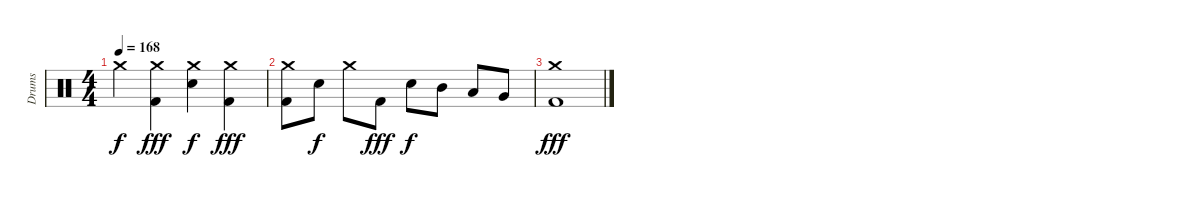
\track ("Drums" "Drums") {instrument percussion}
\staff {score}
\articulation defaults
\ts (4 4)
\tempo 168
\clef neutral
\ks c "Crash medium (hit)".4{dy f}
("Crash medium (hit)" "Kick (hit) 2").4{dy fff} ("Crash medium (hit)" "Electric Snare (hit)").4{dy f} ("Crash medium (hit)" "Kick (hit) 2").4{dy fff} |
("Crash medium (hit)" "Kick (hit) 2").8 "Electric Snare (hit)".8{dy f} "Crash medium (hit)".8 "Kick (hit) 2".8{dy fff} "Electric Snare (hit)".8{dy f} "Mid Tom (hit)".8 "Low Tom (hit)".8 "Very Low Tom (hit)".8 |
("Crash medium (hit)" "Kick (hit) 2").1{dy fff}
